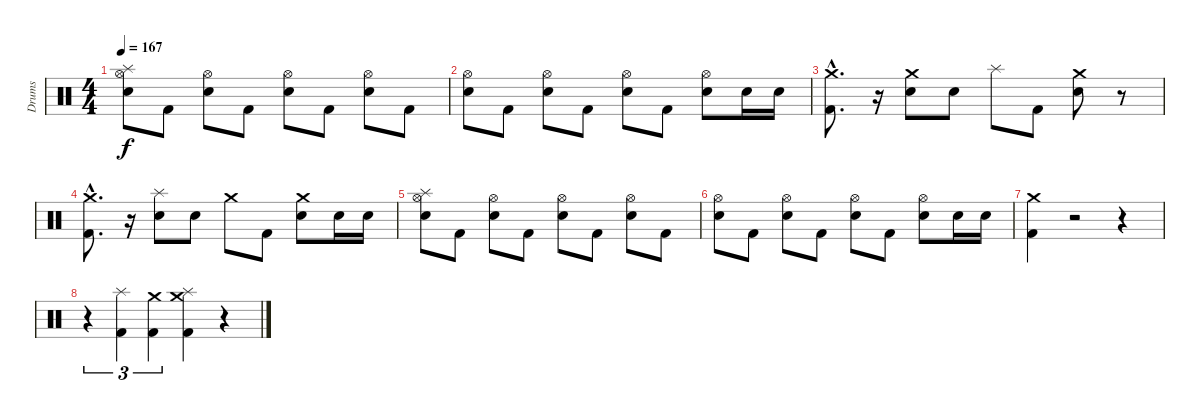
\track ("Drums" "Drums") {instrument percussion}
\staff {score}
\articulation defaults
\ts (4 4)
\tempo 167
\clef neutral
\ks c
("Hi-Hat (open)" "Snare (hit) 2" "Splash (hit)").8{dy f} "Kick (hit) 2".8 ("Hi-Hat (open)" "Snare (hit) 2").8 "Kick (hit) 2".8 ("Hi-Hat (open)" "Snare (hit) 2").8 "Kick (hit) 2".8 ("Hi-Hat (open)" "Snare (hit) 2").8 "Kick (hit) 2".8 |
("Snare (hit) 2" "Hi-Hat (open)").8 "Kick (hit) 2".8 ("Snare (hit) 2" "Hi-Hat (open)").8 "Kick (hit) 2".8 ("Snare (hit) 2" "Hi-Hat (open)").8 "Kick (hit) 2".8 ("Snare (hit) 2" "Hi-Hat (open)").8 "Snare (hit) 2".16 "Snare (hit) 2".16 |
("Kick (hit) 2"{hac} "Crash medium (hit)"{hac}).8{d} r.16 ("Snare (hit) 2" "Crash medium (hit)").8 "Snare (hit) 2".8 "Splash (hit)".8 "Kick (hit) 2".8 ("Snare (hit) 2" "Crash medium (hit)").8 r.8 |
("Kick (hit) 2"{hac} "Crash medium (hit)"{hac}).8{d} r.16 ("Snare (hit) 2" "Splash (hit)").8 "Snare (hit) 2".8 "Crash medium (hit)".8 "Kick (hit) 2".8 ("Snare (hit) 2" "Crash medium (hit)").8 "Snare (hit) 2".16 "Snare (hit) 2".16 |
("Hi-Hat (open)" "Snare (hit) 2" "Splash (hit)").8 "Kick (hit) 2".8 ("Hi-Hat (open)" "Snare (hit) 2").8 "Kick (hit) 2".8 ("Hi-Hat (open)" "Snare (hit) 2").8 "Kick (hit) 2".8 ("Hi-Hat (open)" "Snare (hit) 2").8 "Kick (hit) 2".8 |
("Snare (hit) 2" "Hi-Hat (open)").8 "Kick (hit) 2".8 ("Snare (hit) 2" "Hi-Hat (open)").8 "Kick (hit) 2".8 ("Snare (hit) 2" "Hi-Hat (open)").8 "Kick (hit) 2".8 ("Snare (hit) 2" "Hi-Hat (open)").8 "Snare (hit) 2".16 "Snare (hit) 2".16 |
("Kick (hit) 2" "Crash medium (hit)").4 r.2 r.4 |
r.4{tu (3 2)} ("Kick (hit) 2" "Splash (hit)").4{tu (3 2)} ("Kick (hit) 2" "Crash medium (hit)").4{tu (3 2)} ("Kick (hit) 2" "Crash medium (hit)" "Splash (hit)").4 r.4
